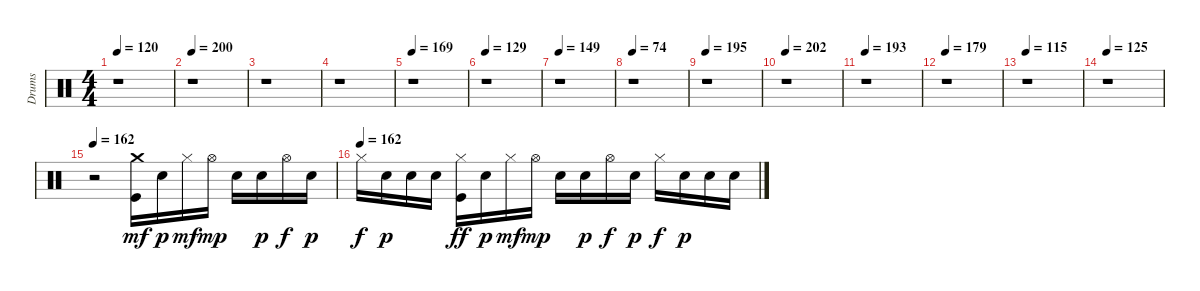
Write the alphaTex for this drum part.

\track ("Drums" "Drums") {instrument percussion}
\staff {score}
\articulation defaults
\ts (4 4)
\tempo 120
\clef neutral
\ks c
r.1{dy f} |
\tempo 200
r.1 |
r.1 |
r.1 |
\tempo 169
r.1 |
\tempo 129
r.1 |
\tempo 149
r.1 |
\tempo 74
r.1 |
\tempo 195
r.1 |
\tempo 202
r.1 |
\tempo 193
r.1 |
\tempo 179
r.1 |
\tempo 115
r.1 |
\tempo 125
r.1 |
\tempo 162
r.2 ("Kick (hit)" "Crash medium (hit)").16{dy mf volume 14 balance 8} "Snare (hit) 2".16{dy p} "Hi-Hat (closed)".16{dy mf} "Hi-Hat (open)".16{dy mp} "Snare (hit) 2".16 "Snare (hit) 2".16{dy p} "Hi-Hat (open)".16{dy f} "Snare (hit) 2".16{dy p} |
\tempo (162)
"Hi-Hat (closed)".16{dy f} "Snare (hit) 2".16{dy p} "Snare (hit) 2".16 "Snare (hit) 2".16 ("Kick (hit)" "Hi-Hat (closed)").16{dy ff} "Snare (hit) 2".16{dy p} "Hi-Hat (closed)".16{dy mf} "Hi-Hat (open)".16{dy mp} "Snare (hit) 2".16 "Snare (hit) 2".16{dy p} "Hi-Hat (open)".16{dy f} "Snare (hit) 2".16{dy p} "Hi-Hat (closed)".16{dy f} "Snare (hit) 2".16{dy p} "Snare (hit) 2".16 "Snare (hit) 2".16
